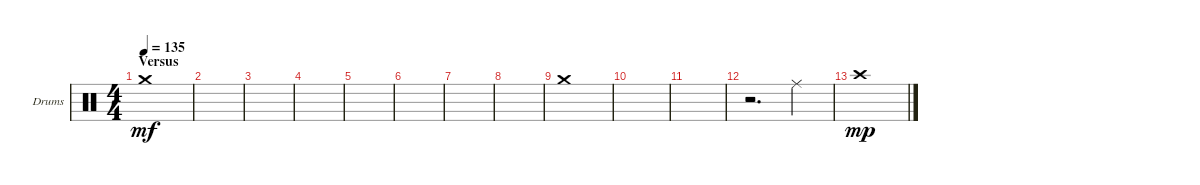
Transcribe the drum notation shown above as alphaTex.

\bracketExtendMode groupsimilarinstruments
\firstSystemTrackNameOrientation horizontal
\otherSystemsTrackNameOrientation horizontal
\track ("OH" "Drums") {instrument percussion}
\staff {score}
\articulation defaults
\ts (4 4)
\section ("" "Versus")
\tempo 135
\clef neutral
\ks c "Crash medium (hit)".1{dy mf}
|
|
|
|
|
|
|
|
"Crash medium (hit)".1 |
\scale
0.333333 |
\scale
0.333333 |
r.2{d} "Ride (middle)".4 |
"Crash high (hit)".1{dy mp}
